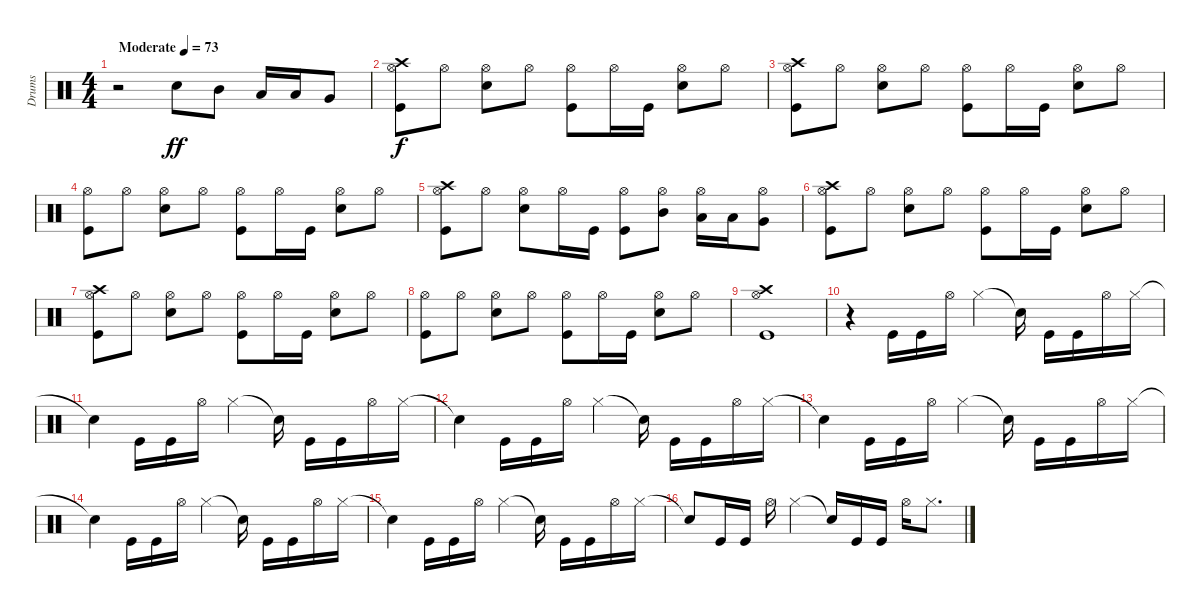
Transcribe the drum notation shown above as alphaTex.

\track ("Drums" "Drums") {instrument percussion}
\staff {score}
\articulation defaults
\ts (4 4)
\tempo (73 "Moderate")
\clef neutral
\ks c
r.2{dy ff} "Snare (hit) 2".8 "Mid Tom (hit)".8 "Low Tom (hit)".16 "Low Tom (hit)".16 "Very Low Tom (hit)".8 |
("Kick (hit)" "Hi-Hat (open)" "Crash high (hit)").8{dy f} "Hi-Hat (open)".8 ("Snare (hit) 2" "Hi-Hat (open)").8 "Hi-Hat (open)".8 ("Kick (hit)" "Hi-Hat (open)").8 "Hi-Hat (open)".16 "Kick (hit)".16 ("Snare (hit) 2" "Hi-Hat (open)").8 "Hi-Hat (open)".8 |
("Kick (hit)" "Hi-Hat (open)" "Crash high (hit)").8 "Hi-Hat (open)".8 ("Snare (hit) 2" "Hi-Hat (open)").8 "Hi-Hat (open)".8 ("Kick (hit)" "Hi-Hat (open)").8 "Hi-Hat (open)".16 "Kick (hit)".16 ("Snare (hit) 2" "Hi-Hat (open)").8 "Hi-Hat (open)".8 |
("Kick (hit)" "Hi-Hat (open)").8 "Hi-Hat (open)".8 ("Snare (hit) 2" "Hi-Hat (open)").8 "Hi-Hat (open)".8 ("Kick (hit)" "Hi-Hat (open)").8 "Hi-Hat (open)".16 "Kick (hit)".16 ("Snare (hit) 2" "Hi-Hat (open)").8 "Hi-Hat (open)".8 |
("Kick (hit)" "Hi-Hat (open)" "Crash high (hit)").8 "Hi-Hat (open)".8 ("Snare (hit) 2" "Hi-Hat (open)").8 "Hi-Hat (open)".16 "Kick (hit)".16 ("Kick (hit)" "Hi-Hat (open)").8 ("Mid Tom (hit)" "Hi-Hat (open)").8 ("Low Tom (hit)" "Hi-Hat (open)").16 "Low Tom (hit)".16 ("Very Low Tom (hit)" "Hi-Hat (open)").8 |
("Kick (hit)" "Hi-Hat (open)" "Crash high (hit)").8 "Hi-Hat (open)".8 ("Snare (hit) 2" "Hi-Hat (open)").8 "Hi-Hat (open)".8 ("Kick (hit)" "Hi-Hat (open)").8 "Hi-Hat (open)".16 "Kick (hit)".16 ("Snare (hit) 2" "Hi-Hat (open)").8 "Hi-Hat (open)".8 |
("Kick (hit)" "Hi-Hat (open)" "Crash high (hit)").8 "Hi-Hat (open)".8 ("Snare (hit) 2" "Hi-Hat (open)").8 "Hi-Hat (open)".8 ("Kick (hit)" "Hi-Hat (open)").8 "Hi-Hat (open)".16 "Kick (hit)".16 ("Snare (hit) 2" "Hi-Hat (open)").8 "Hi-Hat (open)".8 |
("Kick (hit)" "Hi-Hat (open)").8 "Hi-Hat (open)".8 ("Snare (hit) 2" "Hi-Hat (open)").8 "Hi-Hat (open)".8 ("Kick (hit)" "Hi-Hat (open)").8 "Hi-Hat (open)".16 "Kick (hit)".16 ("Snare (hit) 2" "Hi-Hat (open)").8 "Hi-Hat (open)".8 |
("Kick (hit)" "Hi-Hat (open)" "Crash high (hit)").1 |
r.4{volume 3} "Kick (hit)".16 "Kick (hit)".16 "Hi-Hat (open)".16 "Hi-Hat (closed)".4 "Snare (hit)"{t}.16 "Kick (hit)".16 "Kick (hit)".16 "Hi-Hat (open)".16 "Hi-Hat (closed)".16 |
"Snare (hit)"{t}.4 "Kick (hit)".16 "Kick (hit)".16 "Hi-Hat (open)".16 "Hi-Hat (closed)".4 "Snare (hit)"{t}.16 "Kick (hit)".16 "Kick (hit)".16 "Hi-Hat (open)".16 "Hi-Hat (closed)".16 |
"Snare (hit)"{t}.4 "Kick (hit)".16 "Kick (hit)".16 "Hi-Hat (open)".16 "Hi-Hat (closed)".4 "Snare (hit)"{t}.16 "Kick (hit)".16 "Kick (hit)".16 "Hi-Hat (open)".16 "Hi-Hat (closed)".16 |
"Snare (hit)"{t}.4 "Kick (hit)".16 "Kick (hit)".16 "Hi-Hat (open)".16 "Hi-Hat (closed)".4 "Snare (hit)"{t}.16 "Kick (hit)".16 "Kick (hit)".16 "Hi-Hat (open)".16 "Hi-Hat (closed)".16 |
"Snare (hit)"{t}.4 "Kick (hit)".16 "Kick (hit)".16 "Hi-Hat (open)".16 "Hi-Hat (closed)".4 "Snare (hit)"{t}.16 "Kick (hit)".16 "Kick (hit)".16 "Hi-Hat (open)".16 "Hi-Hat (closed)".16 |
"Snare (hit)"{t}.4 "Kick (hit)".16 "Kick (hit)".16 "Hi-Hat (open)".16 "Hi-Hat (closed)".4 "Snare (hit)"{t}.16 "Kick (hit)".16 "Kick (hit)".16 "Hi-Hat (open)".16 "Hi-Hat (closed)".16 |
"Snare (hit)"{t}.8 "Kick (hit)".16 "Kick (hit)".16 "Hi-Hat (open)".16 "Hi-Hat (closed)".4 "Snare (hit)"{t}.16 "Kick (hit)".16 "Kick (hit)".16 "Hi-Hat (open)".16 "Hi-Hat (closed)".8{d}
